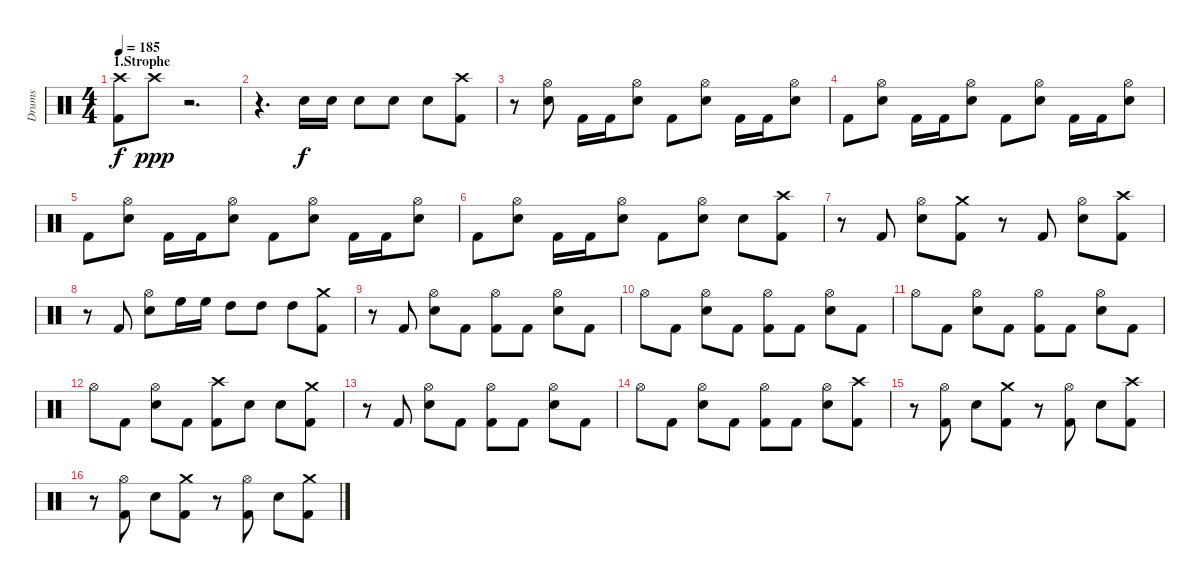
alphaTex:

\track ("Drums" "Drums") {instrument percussion}
\staff {score}
\articulation defaults
\ts (4 4)
\section ("" "1.Strophe")
\tempo 185
\clef neutral
\ks c
("Crash high (hit)" "Kick (hit) 2").8{dy f} "Crash high (hit)".8{dy ppp} r.2{d} |
r.4{d} "Electric Snare (hit)".16{dy f} "Electric Snare (hit)".16 "Electric Snare (hit)".8 "Electric Snare (hit)".8 "Electric Snare (hit)".8 ("Crash high (hit)" "Kick (hit) 2").8 |
r.8 ("Hi-Hat (open)" "Electric Snare (hit)").8 "Kick (hit) 2".16 "Kick (hit) 2".16 ("Hi-Hat (open)" "Electric Snare (hit)").8 "Kick (hit) 2".8 ("Hi-Hat (open)" "Electric Snare (hit)").8 "Kick (hit) 2".16 "Kick (hit) 2".16 ("Hi-Hat (open)" "Electric Snare (hit)").8 |
"Kick (hit) 2".8 ("Hi-Hat (open)" "Electric Snare (hit)").8 "Kick (hit) 2".16 "Kick (hit) 2".16 ("Hi-Hat (open)" "Electric Snare (hit)").8 "Kick (hit) 2".8 ("Hi-Hat (open)" "Electric Snare (hit)").8 "Kick (hit) 2".16 "Kick (hit) 2".16 ("Hi-Hat (open)" "Electric Snare (hit)").8 |
"Kick (hit) 2".8 ("Hi-Hat (open)" "Electric Snare (hit)").8 "Kick (hit) 2".16 "Kick (hit) 2".16 ("Hi-Hat (open)" "Electric Snare (hit)").8 "Kick (hit) 2".8 ("Hi-Hat (open)" "Electric Snare (hit)").8 "Kick (hit) 2".16 "Kick (hit) 2".16 ("Hi-Hat (open)" "Electric Snare (hit)").8 |
"Kick (hit) 2".8 ("Hi-Hat (open)" "Electric Snare (hit)").8 "Kick (hit) 2".16 "Kick (hit) 2".16 ("Hi-Hat (open)" "Electric Snare (hit)").8 "Kick (hit) 2".8 ("Hi-Hat (open)" "Electric Snare (hit)").8 "Electric Snare (hit)".8 ("Crash high (hit)" "Kick (hit) 2").8 |
r.8 "Kick (hit) 2".8 ("Hi-Hat (open)" "Electric Snare (hit)").8 ("Crash medium (hit)" "Kick (hit) 2").8 r.8 "Kick (hit) 2".8 ("Hi-Hat (open)" "Electric Snare (hit)").8 ("Crash high (hit)" "Kick (hit) 2").8 |
r.8 "Kick (hit) 2".8 ("Hi-Hat (open)" "Electric Snare (hit)").8 "High Floor Tom (hit)".16 "High Floor Tom (hit)".16 "High Tom (hit)".8 "High Tom (hit)".8 "High Tom (hit)".8 ("Crash medium (hit)" "Kick (hit) 2").8 |
r.8 "Kick (hit) 2".8 ("Hi-Hat (open)" "Electric Snare (hit)").8 "Kick (hit) 2".8 ("Hi-Hat (open)" "Kick (hit) 2").8 "Kick (hit) 2".8 ("Hi-Hat (open)" "Electric Snare (hit)").8 "Kick (hit) 2".8 |
"Hi-Hat (open)".8 "Kick (hit) 2".8 ("Hi-Hat (open)" "Electric Snare (hit)").8 "Kick (hit) 2".8 ("Hi-Hat (open)" "Kick (hit) 2").8 "Kick (hit) 2".8 ("Hi-Hat (open)" "Electric Snare (hit)").8 "Kick (hit) 2".8 |
"Hi-Hat (open)".8 "Kick (hit) 2".8 ("Hi-Hat (open)" "Electric Snare (hit)").8 "Kick (hit) 2".8 ("Hi-Hat (open)" "Kick (hit) 2").8 "Kick (hit) 2".8 ("Hi-Hat (open)" "Electric Snare (hit)").8 "Kick (hit) 2".8 |
"Hi-Hat (open)".8 "Kick (hit) 2".8 ("Hi-Hat (open)" "Electric Snare (hit)").8 "Kick (hit) 2".8 ("Crash high (hit)" "Kick (hit) 2").8 "Electric Snare (hit)".8 "Electric Snare (hit)".8 ("Crash medium (hit)" "Kick (hit) 2").8 |
r.8 "Kick (hit) 2".8 ("Hi-Hat (open)" "Electric Snare (hit)").8 "Kick (hit) 2".8 ("Hi-Hat (open)" "Kick (hit) 2").8 "Kick (hit) 2".8 ("Hi-Hat (open)" "Electric Snare (hit)").8 "Kick (hit) 2".8 |
"Hi-Hat (open)".8 "Kick (hit) 2".8 ("Hi-Hat (open)" "Electric Snare (hit)").8 "Kick (hit) 2".8 ("Hi-Hat (open)" "Kick (hit) 2").8 "Kick (hit) 2".8 ("Hi-Hat (open)" "Electric Snare (hit)").8 ("Crash high (hit)" "Kick (hit) 2").8 |
r.8 ("Hi-Hat (open)" "Kick (hit) 2").8 "Electric Snare (hit)".8 ("Crash medium (hit)" "Kick (hit) 2").8 r.8 ("Hi-Hat (open)" "Kick (hit) 2").8 "Electric Snare (hit)".8 ("Crash high (hit)" "Kick (hit) 2").8 |
r.8 ("Hi-Hat (open)" "Kick (hit) 2").8 "Electric Snare (hit)".8 ("Crash medium (hit)" "Kick (hit) 2").8 r.8 ("Hi-Hat (open)" "Kick (hit) 2").8 "Electric Snare (hit)".8 ("Crash medium (hit)" "Kick (hit) 2").8
